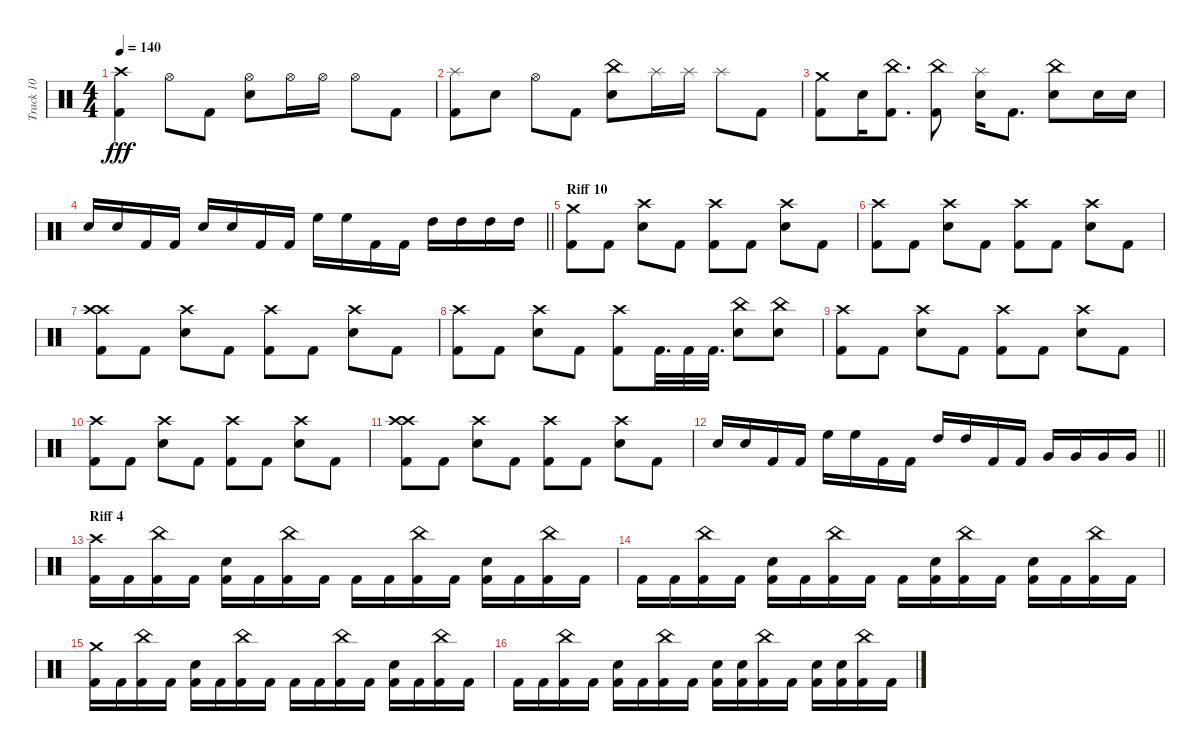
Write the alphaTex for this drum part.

\track ("Track 10" "Track 10") {instrument percussion}
\staff {score}
\articulation defaults
\ts (4 4)
\tempo 140
\clef neutral
\ks c
("Crash high (hit)" "Kick (hit) 2").4{dy fff} "Hi-Hat (open)".8 "Kick (hit) 2".8 ("Hi-Hat (open)" "Snare (hit) 2").8 "Hi-Hat (open)".16 "Hi-Hat (open)".16 "Hi-Hat (open)".8 "Kick (hit) 2".8 |
("Splash (hit)" "Kick (hit) 2").8 "Snare (hit) 2".8 "Hi-Hat (open)".8 "Kick (hit) 2".8 ("China (hit)" "Snare (hit) 2").8 "Splash (hit)".16 "Splash (hit)".16 "Splash (hit)".8 "Kick (hit) 2".8 |
("Crash medium (hit)" "Kick (hit) 2").8 "Snare (hit) 2".16 ("Kick (hit) 2" "China (hit)").8{d} ("China (hit)" "Kick (hit) 2").8 ("Snare (hit) 2" "Splash (hit)").16 "Kick (hit) 2".8{d} ("Snare (hit) 2" "China (hit)").8 "Snare (hit) 2".16 "Snare (hit) 2".16 |
\barLineRight lightlight "Snare (hit) 2".16 "Snare (hit) 2".16 "Kick (hit) 2".16 "Kick (hit) 2".16 "Snare (hit) 2".16 "Snare (hit) 2".16 "Kick (hit) 2".16 "Kick (hit) 2".16 "High Floor Tom (hit)".16 "High Floor Tom (hit)".16 "Kick (hit) 2".16 "Kick (hit) 2".16 "High Tom (hit)".16 "High Tom (hit)".16 "High Tom (hit)".16 "High Tom (hit)".16
|
\section ("" "Riff 10")
("Crash medium (hit)" "Kick (hit) 2").8 "Kick (hit) 2".8 ("Snare (hit) 2" "Crash high (hit)").8 "Kick (hit) 2".8 ("Kick (hit) 2" "Crash high (hit)").8 "Kick (hit) 2".8 ("Crash high (hit)" "Snare (hit) 2").8 "Kick (hit) 2".8 |
("Kick (hit) 2" "Crash high (hit)").8 "Kick (hit) 2".8 ("Snare (hit) 2" "Crash high (hit)").8 "Kick (hit) 2".8 ("Crash high (hit)" "Kick (hit) 2").8 "Kick (hit) 2".8 ("Crash high (hit)" "Snare (hit) 2").8 "Kick (hit) 2".8 |
("Crash high (hit)" "Kick (hit) 2" "Crash high (hit)").8 "Kick (hit) 2".8 ("Snare (hit) 2" "Crash high (hit)").8 "Kick (hit) 2".8 ("Crash high (hit)" "Kick (hit) 2").8 "Kick (hit) 2".8 ("Crash high (hit)" "Snare (hit) 2").8 "Kick (hit) 2".8 |
("Crash high (hit)" "Kick (hit) 2").8 "Kick (hit) 2".8 ("Crash high (hit)" "Snare (hit) 2").8 "Kick (hit) 2".8 ("Crash high (hit)" "Kick (hit) 2").8 "Kick (hit) 2".32{d} "Kick (hit) 2".32 "Kick (hit) 2".32{d} ("Snare (hit) 2" "China (hit)").8 ("China (hit)" "Snare (hit) 2").8 |
("Crash high (hit)" "Kick (hit) 2").8 "Kick (hit) 2".8 ("Snare (hit) 2" "Crash high (hit)").8 "Kick (hit) 2".8 ("Crash high (hit)" "Kick (hit) 2").8 "Kick (hit) 2".8 ("Crash high (hit)" "Snare (hit) 2").8 "Kick (hit) 2".8 |
("Kick (hit) 2" "Crash high (hit)").8 "Kick (hit) 2".8 ("Crash high (hit)" "Snare (hit) 2").8 "Kick (hit) 2".8 ("Kick (hit) 2" "Crash high (hit)").8 "Kick (hit) 2".8 ("Snare (hit) 2" "Crash high (hit)").8 "Kick (hit) 2".8 |
("Crash high (hit)" "Crash high (hit)" "Kick (hit) 2").8 "Kick (hit) 2".8 ("Crash high (hit)" "Snare (hit) 2").8 "Kick (hit) 2".8 ("Kick (hit) 2" "Crash high (hit)").8 "Kick (hit) 2".8 ("Snare (hit) 2" "Crash high (hit)").8 "Kick (hit) 2".8 |
\barLineRight lightlight "Snare (hit) 2".16 "Snare (hit) 2".16 "Kick (hit) 2".16 "Kick (hit) 2".16 "High Floor Tom (hit)".16 "High Floor Tom (hit)".16 "Kick (hit) 2".16 "Kick (hit) 2".16 "High Tom (hit)".16 "High Tom (hit)".16 "Kick (hit) 2".16 "Kick (hit) 2".16 "Very Low Tom (hit)".16 "Very Low Tom (hit)".16 "Very Low Tom (hit)".16 "Very Low Tom (hit)".16
|
\section ("" "Riff 4")
("Crash high (hit)" "Kick (hit) 2").16 "Kick (hit) 2".16 ("Kick (hit) 2" "China (hit)").16 "Kick (hit) 2".16 ("Snare (hit) 2" "Kick (hit) 2").16 "Kick (hit) 2".16 ("China (hit)" "Kick (hit) 2").16 "Kick (hit) 2".16 "Kick (hit) 2".16 "Kick (hit) 2".16 ("China (hit)" "Kick (hit) 2").16 "Kick (hit) 2".16 ("Kick (hit) 2" "Snare (hit) 2").16 "Kick (hit) 2".16 ("Kick (hit) 2" "China (hit)").16 "Kick (hit) 2".16 |
"Kick (hit) 2".16 "Kick (hit) 2".16 ("China (hit)" "Kick (hit) 2").16 "Kick (hit) 2".16 ("Snare (hit) 2" "Kick (hit) 2").16 "Kick (hit) 2".16 ("Kick (hit) 2" "China (hit)").16 "Kick (hit) 2".16 "Kick (hit) 2".16 ("Kick (hit) 2" "Snare (hit) 2").16 ("Kick (hit) 2" "China (hit)").16 "Kick (hit) 2".16 ("Snare (hit) 2" "Kick (hit) 2").16 "Kick (hit) 2".16 ("China (hit)" "Kick (hit) 2").16 "Kick (hit) 2".16 |
("Crash medium (hit)" "Kick (hit) 2").16 "Kick (hit) 2".16 ("China (hit)" "Kick (hit) 2").16 "Kick (hit) 2".16 ("Snare (hit) 2" "Kick (hit) 2").16 "Kick (hit) 2".16 ("Kick (hit) 2" "China (hit)").16 "Kick (hit) 2".16 "Kick (hit) 2".16 "Kick (hit) 2".16 ("Kick (hit) 2" "China (hit)").16 "Kick (hit) 2".16 ("Kick (hit) 2" "Snare (hit) 2").16 "Kick (hit) 2".16 ("China (hit)" "Kick (hit) 2").16 "Kick (hit) 2".16 |
"Kick (hit) 2".16 "Kick (hit) 2".16 ("China (hit)" "Kick (hit) 2").16 "Kick (hit) 2".16 ("Kick (hit) 2" "Snare (hit) 2").16 "Kick (hit) 2".16 ("Kick (hit) 2" "China (hit)").16 "Kick (hit) 2".16 ("Kick (hit) 2" "Snare (hit) 2").16 ("Kick (hit) 2" "Snare (hit) 2").16 ("China (hit)" "Kick (hit) 2").16 "Kick (hit) 2".16 ("Kick (hit) 2" "Snare (hit) 2").16 ("Snare (hit) 2" "Kick (hit) 2").16 ("Kick (hit) 2" "China (hit)").16 "Kick (hit) 2".16
